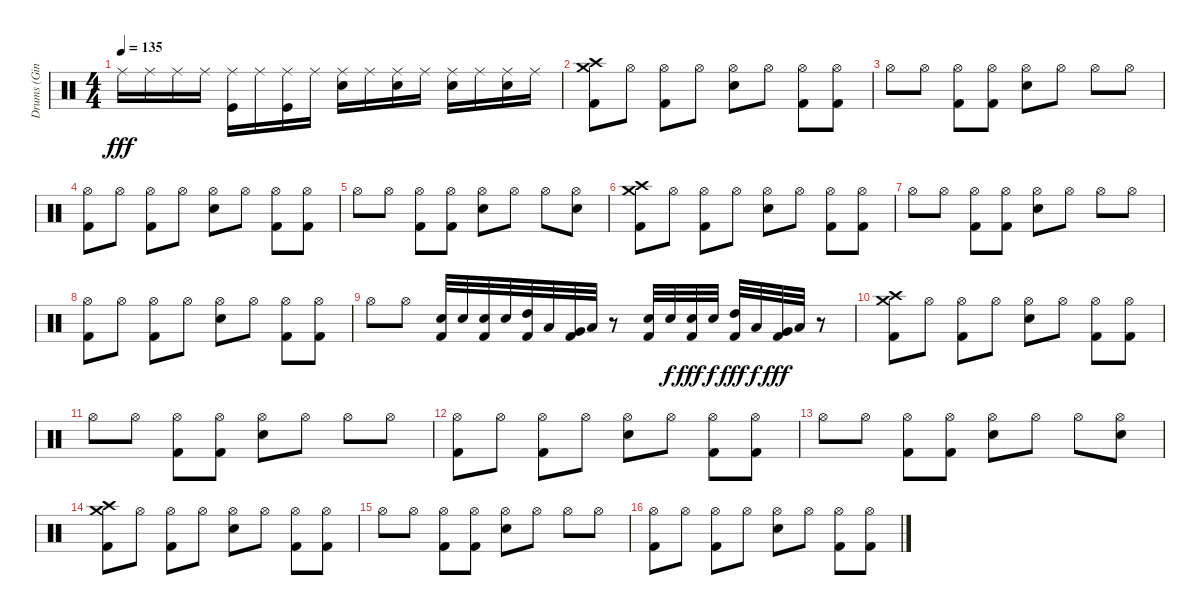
\track ("Drums (Ginger Fish)" "Drums (Gin") {instrument percussion}
\staff {score}
\articulation defaults
\ts (4 4)
\tempo 135
\clef neutral
\ks c "Ride (middle)".16{dy fff} "Ride (middle)".16 "Ride (middle)".16 "Ride (middle)".16
("Ride (middle)" "Kick (hit)").16 "Ride (middle)".16 ("Ride (middle)" "Kick (hit)").16 "Ride (middle)".16 ("Ride (middle)" "Electric Snare (hit)").16 "Ride (middle)".16 ("Ride (middle)" "Electric Snare (hit)").16 "Ride (middle)".16 ("Ride (middle)" "Electric Snare (hit)").16 "Ride (middle)".16 ("Ride (middle)" "Electric Snare (hit)").16 "Ride (middle)".16 |
("Crash high (hit)" "Crash medium (hit)" "Kick (hit) 2").8 "Hi-Hat (open)".8 ("Hi-Hat (open)" "Kick (hit) 2").8 "Hi-Hat (open)".8 ("Hi-Hat (open)" "Electric Snare (hit)").8 "Hi-Hat (open)".8 ("Hi-Hat (open)" "Kick (hit) 2").8 ("Hi-Hat (open)" "Kick (hit) 2").8 |
"Hi-Hat (open)".8 "Hi-Hat (open)".8 ("Hi-Hat (open)" "Kick (hit) 2").8 ("Hi-Hat (open)" "Kick (hit) 2").8 ("Hi-Hat (open)" "Electric Snare (hit)").8 "Hi-Hat (open)".8 "Hi-Hat (open)".8 "Hi-Hat (open)".8 |
("Hi-Hat (open)" "Kick (hit) 2").8 "Hi-Hat (open)".8 ("Hi-Hat (open)" "Kick (hit) 2").8 "Hi-Hat (open)".8 ("Hi-Hat (open)" "Electric Snare (hit)").8 "Hi-Hat (open)".8 ("Hi-Hat (open)" "Kick (hit) 2").8 ("Hi-Hat (open)" "Kick (hit) 2").8 |
"Hi-Hat (open)".8 "Hi-Hat (open)".8 ("Hi-Hat (open)" "Kick (hit) 2").8 ("Hi-Hat (open)" "Kick (hit) 2").8 ("Hi-Hat (open)" "Electric Snare (hit)").8 "Hi-Hat (open)".8 "Hi-Hat (open)".8 ("Hi-Hat (open)" "Electric Snare (hit)").8 |
("Crash high (hit)" "Crash medium (hit)" "Kick (hit) 2").8 "Hi-Hat (open)".8 ("Hi-Hat (open)" "Kick (hit) 2").8 "Hi-Hat (open)".8 ("Hi-Hat (open)" "Electric Snare (hit)").8 "Hi-Hat (open)".8 ("Hi-Hat (open)" "Kick (hit) 2").8 ("Hi-Hat (open)" "Kick (hit) 2").8 |
"Hi-Hat (open)".8 "Hi-Hat (open)".8 ("Hi-Hat (open)" "Kick (hit) 2").8 ("Hi-Hat (open)" "Kick (hit) 2").8 ("Hi-Hat (open)" "Electric Snare (hit)").8 "Hi-Hat (open)".8 "Hi-Hat (open)".8 "Hi-Hat (open)".8 |
("Hi-Hat (open)" "Kick (hit) 2").8 "Hi-Hat (open)".8 ("Hi-Hat (open)" "Kick (hit) 2").8 "Hi-Hat (open)".8 ("Hi-Hat (open)" "Electric Snare (hit)").8 "Hi-Hat (open)".8 ("Hi-Hat (open)" "Kick (hit) 2").8 ("Hi-Hat (open)" "Kick (hit) 2").8 |
"Hi-Hat (open)".8 "Hi-Hat (open)".8 ("Electric Snare (hit)" "Kick (hit) 2").32 "Electric Snare (hit)".32 ("Electric Snare (hit)" "Kick (hit) 2").32 "Electric Snare (hit)".32 ("High Tom (hit)" "Kick (hit) 2").32 "Low Tom (hit)".32 ("Very Low Tom (hit)" "Kick (hit) 2").32 "Low Floor Tom (hit)".32 r.8 ("Electric Snare (hit)" "Kick (hit) 2").32 "Electric Snare (hit)".32{dy f} ("Electric Snare (hit)" "Kick (hit) 2").32{dy fff} "Electric Snare (hit)".32{dy f} ("High Tom (hit)" "Kick (hit) 2").32{dy fff} "Low Tom (hit)".32{dy f} ("Very Low Tom (hit)" "Kick (hit) 2").32{dy fff} "Low Floor Tom (hit)".32 r.8 |
("Crash high (hit)" "Crash medium (hit)" "Kick (hit) 2").8 "Hi-Hat (open)".8 ("Hi-Hat (open)" "Kick (hit) 2").8 "Hi-Hat (open)".8 ("Hi-Hat (open)" "Electric Snare (hit)").8 "Hi-Hat (open)".8 ("Hi-Hat (open)" "Kick (hit) 2").8 ("Hi-Hat (open)" "Kick (hit) 2").8 |
"Hi-Hat (open)".8 "Hi-Hat (open)".8 ("Hi-Hat (open)" "Kick (hit) 2").8 ("Hi-Hat (open)" "Kick (hit) 2").8 ("Hi-Hat (open)" "Electric Snare (hit)").8 "Hi-Hat (open)".8 "Hi-Hat (open)".8 "Hi-Hat (open)".8 |
("Hi-Hat (open)" "Kick (hit) 2").8 "Hi-Hat (open)".8 ("Hi-Hat (open)" "Kick (hit) 2").8 "Hi-Hat (open)".8 ("Hi-Hat (open)" "Electric Snare (hit)").8 "Hi-Hat (open)".8 ("Hi-Hat (open)" "Kick (hit) 2").8 ("Hi-Hat (open)" "Kick (hit) 2").8 |
"Hi-Hat (open)".8 "Hi-Hat (open)".8 ("Hi-Hat (open)" "Kick (hit) 2").8 ("Hi-Hat (open)" "Kick (hit) 2").8 ("Hi-Hat (open)" "Electric Snare (hit)").8 "Hi-Hat (open)".8 "Hi-Hat (open)".8 ("Hi-Hat (open)" "Electric Snare (hit)").8 |
("Crash high (hit)" "Crash medium (hit)" "Kick (hit) 2").8 "Hi-Hat (open)".8 ("Hi-Hat (open)" "Kick (hit) 2").8 "Hi-Hat (open)".8 ("Hi-Hat (open)" "Electric Snare (hit)").8 "Hi-Hat (open)".8 ("Hi-Hat (open)" "Kick (hit) 2").8 ("Hi-Hat (open)" "Kick (hit) 2").8 |
"Hi-Hat (open)".8 "Hi-Hat (open)".8 ("Hi-Hat (open)" "Kick (hit) 2").8 ("Hi-Hat (open)" "Kick (hit) 2").8 ("Hi-Hat (open)" "Electric Snare (hit)").8 "Hi-Hat (open)".8 "Hi-Hat (open)".8 "Hi-Hat (open)".8 |
("Hi-Hat (open)" "Kick (hit) 2").8 "Hi-Hat (open)".8 ("Hi-Hat (open)" "Kick (hit) 2").8 "Hi-Hat (open)".8 ("Hi-Hat (open)" "Electric Snare (hit)").8 "Hi-Hat (open)".8 ("Hi-Hat (open)" "Kick (hit) 2").8 ("Hi-Hat (open)" "Kick (hit) 2").8
